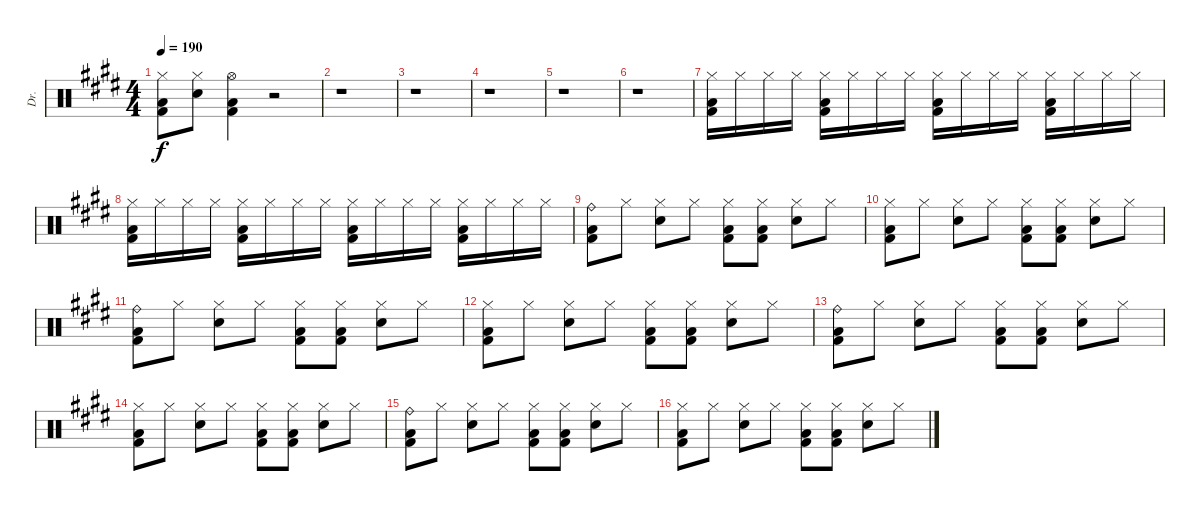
\track ("Dr." "Dr.") {instrument percussion}
\staff {score}
\articulation defaults
\ts (4 4)
\tempo 190
\clef neutral
\ks e
("Hi-Hat (closed)" "Low Floor Tom (hit)" "Kick (hit) 2").8{dy f} ("Electric Snare (hit)" "Hi-Hat (closed)").8 ("Hi-Hat (open)" "Low Floor Tom (hit)" "Kick (hit) 2").4 r.2 |
r.1 |
r.1 |
r.1 |
r.1 |
r.1 |
("Hi-Hat (closed)" "Low Floor Tom (hit)" "Kick (hit) 2").16 "Hi-Hat (closed)".16 "Hi-Hat (closed)".16 "Hi-Hat (closed)".16 ("Hi-Hat (closed)" "Low Floor Tom (hit)" "Kick (hit) 2").16 "Hi-Hat (closed)".16 "Hi-Hat (closed)".16 "Hi-Hat (closed)".16 ("Hi-Hat (closed)" "Low Floor Tom (hit)" "Kick (hit) 2").16 "Hi-Hat (closed)".16 "Hi-Hat (closed)".16 "Hi-Hat (closed)".16 ("Hi-Hat (closed)" "Low Floor Tom (hit)" "Kick (hit) 2").16 "Hi-Hat (closed)".16 "Hi-Hat (closed)".16 "Hi-Hat (closed)".16 |
("Hi-Hat (closed)" "Low Floor Tom (hit)" "Kick (hit) 2").16 "Hi-Hat (closed)".16 "Hi-Hat (closed)".16 "Hi-Hat (closed)".16 ("Hi-Hat (closed)" "Low Floor Tom (hit)" "Kick (hit) 2").16 "Hi-Hat (closed)".16 "Hi-Hat (closed)".16 "Hi-Hat (closed)".16 ("Hi-Hat (closed)" "Low Floor Tom (hit)" "Kick (hit) 2").16 "Hi-Hat (closed)".16 "Hi-Hat (closed)".16 "Hi-Hat (closed)".16 ("Hi-Hat (closed)" "Low Floor Tom (hit)" "Kick (hit) 2").16 "Hi-Hat (closed)".16 "Hi-Hat (closed)".16 "Hi-Hat (closed)".16 |
("Ride (bell)" "Low Floor Tom (hit)" "Kick (hit) 2").8 "Hi-Hat (closed)".8 ("Electric Snare (hit)" "Hi-Hat (closed)").8 "Hi-Hat (closed)".8 ("Hi-Hat (closed)" "Low Floor Tom (hit)" "Kick (hit) 2").8 ("Hi-Hat (closed)" "Low Floor Tom (hit)" "Kick (hit) 2").8 ("Electric Snare (hit)" "Hi-Hat (closed)").8 "Hi-Hat (closed)".8 |
("Hi-Hat (closed)" "Low Floor Tom (hit)" "Kick (hit) 2").8 "Hi-Hat (closed)".8 ("Electric Snare (hit)" "Hi-Hat (closed)").8 "Hi-Hat (closed)".8 ("Hi-Hat (closed)" "Low Floor Tom (hit)" "Kick (hit) 2").8 ("Hi-Hat (closed)" "Low Floor Tom (hit)" "Kick (hit) 2").8 ("Electric Snare (hit)" "Hi-Hat (closed)").8 "Hi-Hat (closed)".8 |
("Ride (bell)" "Low Floor Tom (hit)" "Kick (hit) 2").8 "Hi-Hat (closed)".8 ("Electric Snare (hit)" "Hi-Hat (closed)").8 "Hi-Hat (closed)".8 ("Hi-Hat (closed)" "Low Floor Tom (hit)" "Kick (hit) 2").8 ("Hi-Hat (closed)" "Low Floor Tom (hit)" "Kick (hit) 2").8 ("Electric Snare (hit)" "Hi-Hat (closed)").8 "Hi-Hat (closed)".8 |
("Hi-Hat (closed)" "Low Floor Tom (hit)" "Kick (hit) 2").8 "Hi-Hat (closed)".8 ("Electric Snare (hit)" "Hi-Hat (closed)").8 "Hi-Hat (closed)".8 ("Hi-Hat (closed)" "Low Floor Tom (hit)" "Kick (hit) 2").8 ("Hi-Hat (closed)" "Low Floor Tom (hit)" "Kick (hit) 2").8 ("Electric Snare (hit)" "Hi-Hat (closed)").8 "Hi-Hat (closed)".8 |
("Ride (bell)" "Low Floor Tom (hit)" "Kick (hit) 2").8 "Hi-Hat (closed)".8 ("Electric Snare (hit)" "Hi-Hat (closed)").8 "Hi-Hat (closed)".8 ("Hi-Hat (closed)" "Low Floor Tom (hit)" "Kick (hit) 2").8 ("Hi-Hat (closed)" "Low Floor Tom (hit)" "Kick (hit) 2").8 ("Electric Snare (hit)" "Hi-Hat (closed)").8 "Hi-Hat (closed)".8 |
("Hi-Hat (closed)" "Low Floor Tom (hit)" "Kick (hit) 2").8 "Hi-Hat (closed)".8 ("Electric Snare (hit)" "Hi-Hat (closed)").8 "Hi-Hat (closed)".8 ("Hi-Hat (closed)" "Low Floor Tom (hit)" "Kick (hit) 2").8 ("Hi-Hat (closed)" "Low Floor Tom (hit)" "Kick (hit) 2").8 ("Electric Snare (hit)" "Hi-Hat (closed)").8 "Hi-Hat (closed)".8 |
("Ride (bell)" "Low Floor Tom (hit)" "Kick (hit) 2").8 "Hi-Hat (closed)".8 ("Electric Snare (hit)" "Hi-Hat (closed)").8 "Hi-Hat (closed)".8 ("Hi-Hat (closed)" "Low Floor Tom (hit)" "Kick (hit) 2").8 ("Hi-Hat (closed)" "Low Floor Tom (hit)" "Kick (hit) 2").8 ("Electric Snare (hit)" "Hi-Hat (closed)").8 "Hi-Hat (closed)".8 |
("Hi-Hat (closed)" "Low Floor Tom (hit)" "Kick (hit) 2").8 "Hi-Hat (closed)".8 ("Electric Snare (hit)" "Hi-Hat (closed)").8 "Hi-Hat (closed)".8 ("Hi-Hat (closed)" "Low Floor Tom (hit)" "Kick (hit) 2").8 ("Hi-Hat (closed)" "Low Floor Tom (hit)" "Kick (hit) 2").8 ("Electric Snare (hit)" "Hi-Hat (closed)").8 "Hi-Hat (closed)".8
